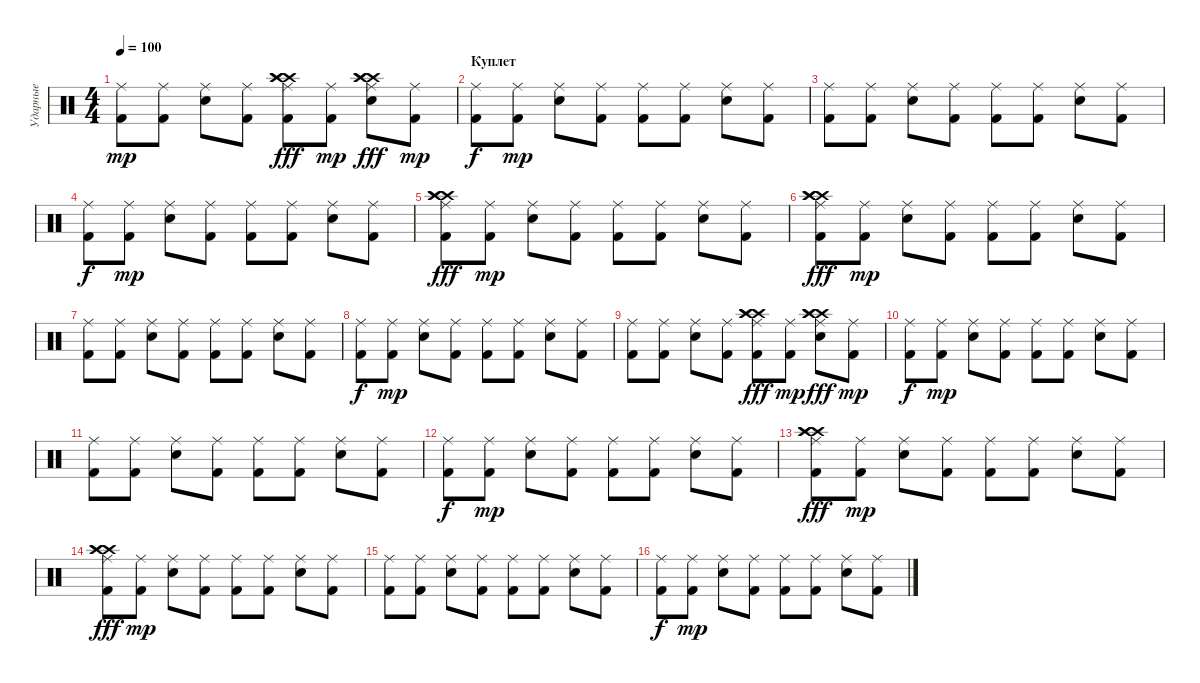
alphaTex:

\track ("Ударные" "Ударные") {instrument percussion}
\staff {score}
\articulation defaults
\ts (4 4)
\tempo 100
\clef neutral
\ks c
("Kick (hit) 2" "Ride (middle)").8{dy mp} ("Kick (hit) 2" "Ride (middle)").8 ("Electric Snare (hit)" "Ride (middle)").8 ("Kick (hit) 2" "Ride (middle)").8 ("Kick (hit) 2" "Ride (middle)" "Crash high (hit)" "Crash high (hit)" "Crash high (hit)").8{dy fff} ("Kick (hit) 2" "Ride (middle)").8{dy mp} ("Electric Snare (hit)" "Ride (middle)" "Crash high (hit)" "Crash high (hit)" "Crash high (hit)").8{dy fff} ("Kick (hit) 2" "Ride (middle)").8{dy mp} |
\section ("" "Куплет")
("Kick (hit) 2" "Ride (middle)").8{dy f} ("Kick (hit) 2" "Ride (middle)").8{dy mp} ("Electric Snare (hit)" "Ride (middle)").8 ("Kick (hit) 2" "Ride (middle)").8 ("Kick (hit) 2" "Ride (middle)").8 ("Kick (hit) 2" "Ride (middle)").8 ("Electric Snare (hit)" "Ride (middle)").8 ("Kick (hit) 2" "Ride (middle)").8 |
("Kick (hit) 2" "Ride (middle)").8 ("Kick (hit) 2" "Ride (middle)").8 ("Electric Snare (hit)" "Ride (middle)").8 ("Kick (hit) 2" "Ride (middle)").8 ("Kick (hit) 2" "Ride (middle)").8 ("Kick (hit) 2" "Ride (middle)").8 ("Electric Snare (hit)" "Ride (middle)").8 ("Kick (hit) 2" "Ride (middle)").8 |
("Kick (hit) 2" "Ride (middle)").8{dy f} ("Kick (hit) 2" "Ride (middle)").8{dy mp} ("Electric Snare (hit)" "Ride (middle)").8 ("Kick (hit) 2" "Ride (middle)").8 ("Kick (hit) 2" "Ride (middle)").8 ("Kick (hit) 2" "Ride (middle)").8 ("Electric Snare (hit)" "Ride (middle)").8 ("Kick (hit) 2" "Ride (middle)").8 |
("Kick (hit) 2" "Ride (middle)" "Crash high (hit)" "Crash high (hit)" "Crash high (hit)").8{dy fff} ("Kick (hit) 2" "Ride (middle)").8{dy mp} ("Electric Snare (hit)" "Ride (middle)").8 ("Kick (hit) 2" "Ride (middle)").8 ("Kick (hit) 2" "Ride (middle)").8 ("Kick (hit) 2" "Ride (middle)").8 ("Electric Snare (hit)" "Ride (middle)").8 ("Kick (hit) 2" "Ride (middle)").8 |
("Kick (hit) 2" "Ride (middle)" "Crash high (hit)" "Crash high (hit)" "Crash high (hit)").8{dy fff} ("Kick (hit) 2" "Ride (middle)").8{dy mp} ("Electric Snare (hit)" "Ride (middle)").8 ("Kick (hit) 2" "Ride (middle)").8 ("Kick (hit) 2" "Ride (middle)").8 ("Kick (hit) 2" "Ride (middle)").8 ("Electric Snare (hit)" "Ride (middle)").8 ("Kick (hit) 2" "Ride (middle)").8 |
("Kick (hit) 2" "Ride (middle)").8 ("Kick (hit) 2" "Ride (middle)").8 ("Electric Snare (hit)" "Ride (middle)").8 ("Kick (hit) 2" "Ride (middle)").8 ("Kick (hit) 2" "Ride (middle)").8 ("Kick (hit) 2" "Ride (middle)").8 ("Electric Snare (hit)" "Ride (middle)").8 ("Kick (hit) 2" "Ride (middle)").8 |
("Kick (hit) 2" "Ride (middle)").8{dy f} ("Kick (hit) 2" "Ride (middle)").8{dy mp} ("Electric Snare (hit)" "Ride (middle)").8 ("Kick (hit) 2" "Ride (middle)").8 ("Kick (hit) 2" "Ride (middle)").8 ("Kick (hit) 2" "Ride (middle)").8 ("Electric Snare (hit)" "Ride (middle)").8 ("Kick (hit) 2" "Ride (middle)").8 |
("Kick (hit) 2" "Ride (middle)").8 ("Kick (hit) 2" "Ride (middle)").8 ("Electric Snare (hit)" "Ride (middle)").8 ("Kick (hit) 2" "Ride (middle)").8 ("Kick (hit) 2" "Ride (middle)" "Crash high (hit)" "Crash high (hit)" "Crash high (hit)").8{dy fff} ("Kick (hit) 2" "Ride (middle)").8{dy mp} ("Electric Snare (hit)" "Ride (middle)" "Crash high (hit)" "Crash high (hit)" "Crash high (hit)").8{dy fff} ("Kick (hit) 2" "Ride (middle)").8{dy mp} |
("Kick (hit) 2" "Ride (middle)").8{dy f} ("Kick (hit) 2" "Ride (middle)").8{dy mp} ("Electric Snare (hit)" "Ride (middle)").8 ("Kick (hit) 2" "Ride (middle)").8 ("Kick (hit) 2" "Ride (middle)").8 ("Kick (hit) 2" "Ride (middle)").8 ("Electric Snare (hit)" "Ride (middle)").8 ("Kick (hit) 2" "Ride (middle)").8 |
("Kick (hit) 2" "Ride (middle)").8 ("Kick (hit) 2" "Ride (middle)").8 ("Electric Snare (hit)" "Ride (middle)").8 ("Kick (hit) 2" "Ride (middle)").8 ("Kick (hit) 2" "Ride (middle)").8 ("Kick (hit) 2" "Ride (middle)").8 ("Electric Snare (hit)" "Ride (middle)").8 ("Kick (hit) 2" "Ride (middle)").8 |
("Kick (hit) 2" "Ride (middle)").8{dy f} ("Kick (hit) 2" "Ride (middle)").8{dy mp} ("Electric Snare (hit)" "Ride (middle)").8 ("Kick (hit) 2" "Ride (middle)").8 ("Kick (hit) 2" "Ride (middle)").8 ("Kick (hit) 2" "Ride (middle)").8 ("Electric Snare (hit)" "Ride (middle)").8 ("Kick (hit) 2" "Ride (middle)").8 |
("Kick (hit) 2" "Ride (middle)" "Crash high (hit)" "Crash high (hit)" "Crash high (hit)").8{dy fff} ("Kick (hit) 2" "Ride (middle)").8{dy mp} ("Electric Snare (hit)" "Ride (middle)").8 ("Kick (hit) 2" "Ride (middle)").8 ("Kick (hit) 2" "Ride (middle)").8 ("Kick (hit) 2" "Ride (middle)").8 ("Electric Snare (hit)" "Ride (middle)").8 ("Kick (hit) 2" "Ride (middle)").8 |
("Kick (hit) 2" "Ride (middle)" "Crash high (hit)" "Crash high (hit)" "Crash high (hit)").8{dy fff} ("Kick (hit) 2" "Ride (middle)").8{dy mp} ("Electric Snare (hit)" "Ride (middle)").8 ("Kick (hit) 2" "Ride (middle)").8 ("Kick (hit) 2" "Ride (middle)").8 ("Kick (hit) 2" "Ride (middle)").8 ("Electric Snare (hit)" "Ride (middle)").8 ("Kick (hit) 2" "Ride (middle)").8 |
("Kick (hit) 2" "Ride (middle)").8 ("Kick (hit) 2" "Ride (middle)").8 ("Electric Snare (hit)" "Ride (middle)").8 ("Kick (hit) 2" "Ride (middle)").8 ("Kick (hit) 2" "Ride (middle)").8 ("Kick (hit) 2" "Ride (middle)").8 ("Electric Snare (hit)" "Ride (middle)").8 ("Kick (hit) 2" "Ride (middle)").8 |
("Kick (hit) 2" "Ride (middle)").8{dy f} ("Kick (hit) 2" "Ride (middle)").8{dy mp} ("Electric Snare (hit)" "Ride (middle)").8 ("Kick (hit) 2" "Ride (middle)").8 ("Kick (hit) 2" "Ride (middle)").8 ("Kick (hit) 2" "Ride (middle)").8 ("Electric Snare (hit)" "Ride (middle)").8 ("Kick (hit) 2" "Ride (middle)").8
